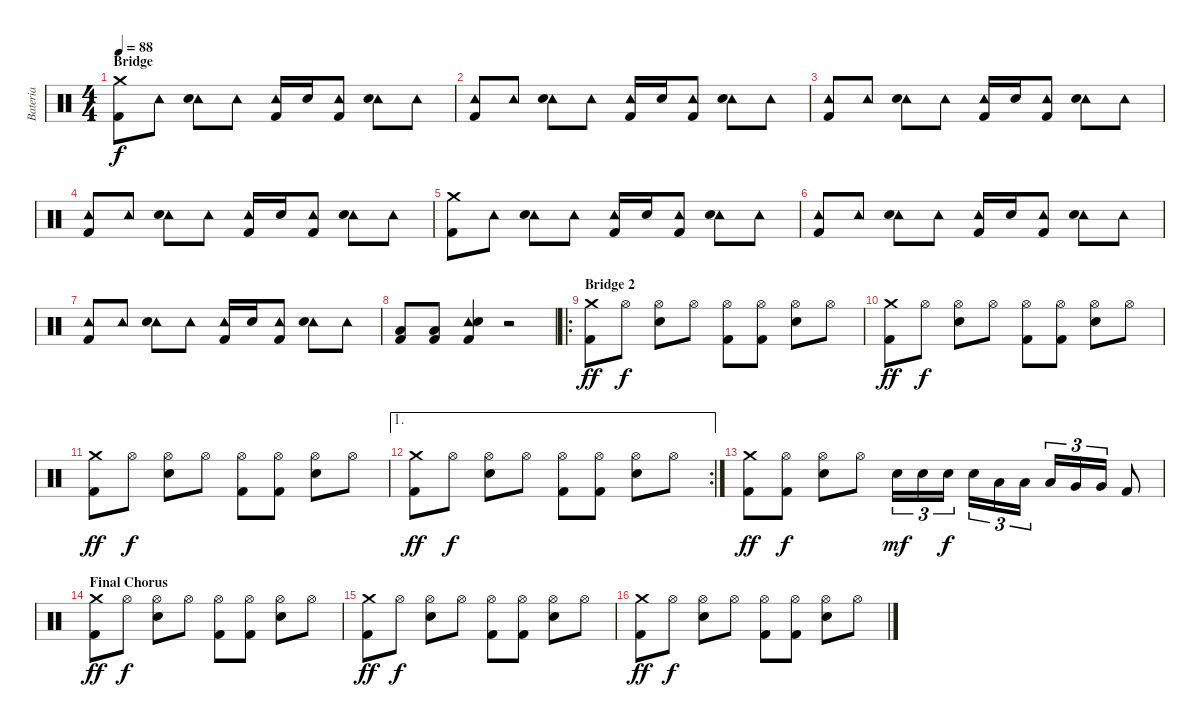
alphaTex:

\track ("Bateria" "Bateria") {instrument percussion}
\staff {score}
\articulation defaults
\ts (4 4)
\section ("" "Bridge")
\tempo 88
\clef neutral
\ks c
("Crash medium (hit)" "Kick (hit) 2").8{dy f} "Tambourine (hit)".8 ("Tambourine (hit)" "Electric Snare (hit)").8 "Tambourine (hit)".8 ("Tambourine (hit)" "Kick (hit) 2").16 "Electric Snare (hit)".16 ("Tambourine (hit)" "Kick (hit) 2").8 ("Tambourine (hit)" "Electric Snare (hit)").8 "Tambourine (hit)".8 |
("Tambourine (hit)" "Kick (hit) 2").8 "Tambourine (hit)".8 ("Tambourine (hit)" "Electric Snare (hit)").8 "Tambourine (hit)".8 ("Tambourine (hit)" "Kick (hit) 2").16 "Electric Snare (hit)".16 ("Tambourine (hit)" "Kick (hit) 2").8 ("Tambourine (hit)" "Electric Snare (hit)").8 "Tambourine (hit)".8 |
("Tambourine (hit)" "Kick (hit) 2").8 "Tambourine (hit)".8 ("Tambourine (hit)" "Electric Snare (hit)").8 "Tambourine (hit)".8 ("Tambourine (hit)" "Kick (hit) 2").16 "Electric Snare (hit)".16 ("Tambourine (hit)" "Kick (hit) 2").8 ("Tambourine (hit)" "Electric Snare (hit)").8 "Tambourine (hit)".8 |
("Tambourine (hit)" "Kick (hit) 2").8 "Tambourine (hit)".8 ("Tambourine (hit)" "Electric Snare (hit)").8 "Tambourine (hit)".8 ("Tambourine (hit)" "Kick (hit) 2").16 "Electric Snare (hit)".16 ("Tambourine (hit)" "Kick (hit) 2").8 ("Tambourine (hit)" "Electric Snare (hit)").8 "Tambourine (hit)".8 |
("Crash medium (hit)" "Kick (hit) 2").8 "Tambourine (hit)".8 ("Tambourine (hit)" "Electric Snare (hit)").8 "Tambourine (hit)".8 ("Tambourine (hit)" "Kick (hit) 2").16 "Electric Snare (hit)".16 ("Tambourine (hit)" "Kick (hit) 2").8 ("Tambourine (hit)" "Electric Snare (hit)").8 "Tambourine (hit)".8 |
("Tambourine (hit)" "Kick (hit) 2").8 "Tambourine (hit)".8 ("Tambourine (hit)" "Electric Snare (hit)").8 "Tambourine (hit)".8 ("Tambourine (hit)" "Kick (hit) 2").16 "Electric Snare (hit)".16 ("Tambourine (hit)" "Kick (hit) 2").8 ("Tambourine (hit)" "Electric Snare (hit)").8 "Tambourine (hit)".8 |
("Tambourine (hit)" "Kick (hit) 2").8 "Tambourine (hit)".8 ("Tambourine (hit)" "Electric Snare (hit)").8 "Tambourine (hit)".8 ("Tambourine (hit)" "Kick (hit) 2").16 "Electric Snare (hit)".16 ("Tambourine (hit)" "Kick (hit) 2").8 ("Tambourine (hit)" "Electric Snare (hit)").8 "Tambourine (hit)".8 |
("Low Floor Tom (hit)" "Kick (hit) 2").8 ("Low Floor Tom (hit)" "Kick (hit) 2").8 ("Tambourine (hit)" "Electric Snare (hit)" "Kick (hit) 2").4 r.2 |
\ro
\section ("" "Bridge 2")
("Crash medium (hit)" "Kick (hit) 2").8{dy ff} "Hi-Hat (open)".8{dy f} ("Hi-Hat (open)" "Electric Snare (hit)").8 "Hi-Hat (open)".8 ("Hi-Hat (open)" "Kick (hit) 2").8 ("Hi-Hat (open)" "Kick (hit) 2").8 ("Hi-Hat (open)" "Electric Snare (hit)").8 "Hi-Hat (open)".8 |
("Crash medium (hit)" "Kick (hit) 2").8{dy ff} "Hi-Hat (open)".8{dy f} ("Hi-Hat (open)" "Electric Snare (hit)").8 "Hi-Hat (open)".8 ("Hi-Hat (open)" "Kick (hit) 2").8 ("Hi-Hat (open)" "Kick (hit) 2").8 ("Hi-Hat (open)" "Electric Snare (hit)").8 "Hi-Hat (open)".8 |
("Crash medium (hit)" "Kick (hit) 2").8{dy ff} "Hi-Hat (open)".8{dy f} ("Hi-Hat (open)" "Electric Snare (hit)").8 "Hi-Hat (open)".8 ("Hi-Hat (open)" "Kick (hit) 2").8 ("Hi-Hat (open)" "Kick (hit) 2").8 ("Hi-Hat (open)" "Electric Snare (hit)").8 "Hi-Hat (open)".8 |
\ae 1
\rc 2
("Crash medium (hit)" "Kick (hit) 2").8{dy ff} "Hi-Hat (open)".8{dy f} ("Hi-Hat (open)" "Electric Snare (hit)").8 "Hi-Hat (open)".8 ("Hi-Hat (open)" "Kick (hit) 2").8 ("Hi-Hat (open)" "Kick (hit) 2").8 ("Hi-Hat (open)" "Electric Snare (hit)").8 "Hi-Hat (open)".8 |
("Crash medium (hit)" "Kick (hit) 2").8{dy ff} ("Hi-Hat (open)" "Kick (hit) 2").8{dy f} ("Hi-Hat (open)" "Electric Snare (hit)").8 "Hi-Hat (open)".8 "Electric Snare (hit)".16{tu (3 2) dy mf} "Electric Snare (hit)".16{tu (3 2)} "Electric Snare (hit)".16{tu (3 2) dy f} "Electric Snare (hit)".16{tu (3 2)} "Low Tom (hit)".16{tu (3 2)} "Low Tom (hit)".16{tu (3 2)} "Low Tom (hit)".16{tu (3 2)} "Very Low Tom (hit)".16{tu (3 2)} "Very Low Tom (hit)".16{tu (3 2)} "Kick (hit) 2".8 |
\section ("" "Final Chorus")
("Crash medium (hit)" "Kick (hit) 2").8{dy ff} "Hi-Hat (open)".8{dy f} ("Hi-Hat (open)" "Electric Snare (hit)").8 "Hi-Hat (open)".8 ("Hi-Hat (open)" "Kick (hit) 2").8 ("Hi-Hat (open)" "Kick (hit) 2").8 ("Hi-Hat (open)" "Electric Snare (hit)").8 "Hi-Hat (open)".8 |
("Crash medium (hit)" "Kick (hit) 2").8{dy ff} "Hi-Hat (open)".8{dy f} ("Hi-Hat (open)" "Electric Snare (hit)").8 "Hi-Hat (open)".8 ("Hi-Hat (open)" "Kick (hit) 2").8 ("Hi-Hat (open)" "Kick (hit) 2").8 ("Hi-Hat (open)" "Electric Snare (hit)").8 "Hi-Hat (open)".8 |
("Crash medium (hit)" "Kick (hit) 2").8{dy ff} "Hi-Hat (open)".8{dy f} ("Hi-Hat (open)" "Electric Snare (hit)").8 "Hi-Hat (open)".8 ("Hi-Hat (open)" "Kick (hit) 2").8 ("Hi-Hat (open)" "Kick (hit) 2").8 ("Hi-Hat (open)" "Electric Snare (hit)").8 "Hi-Hat (open)".8
